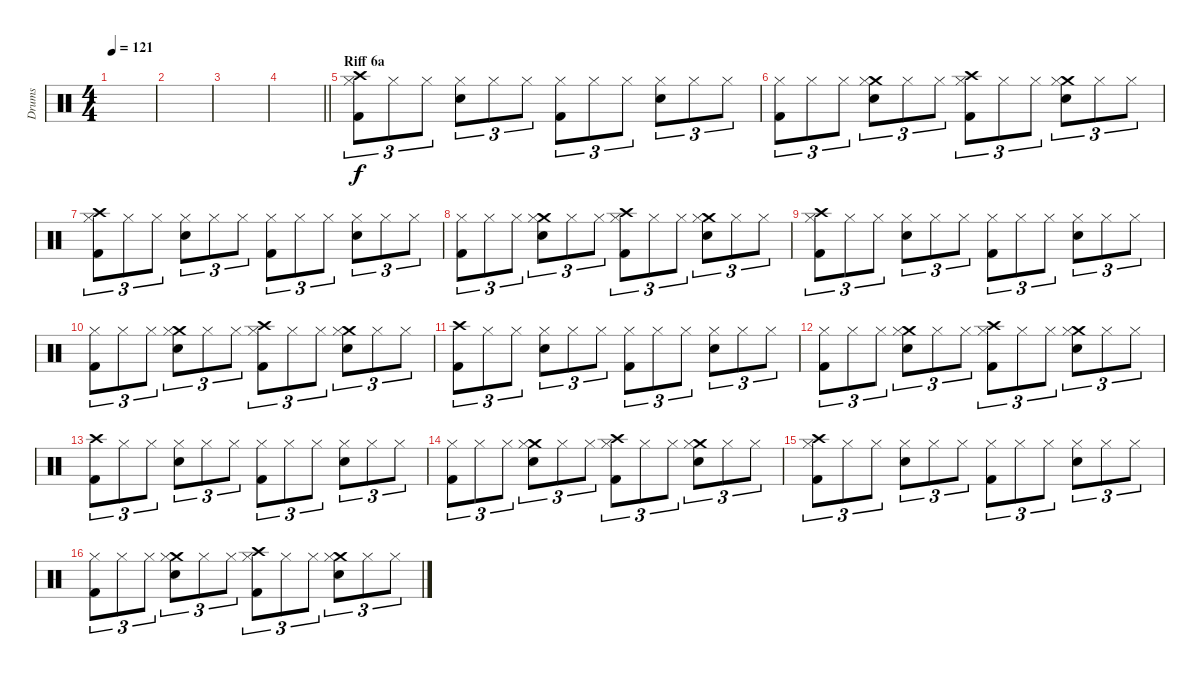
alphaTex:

\track ("Drums" "Drums") {instrument percussion}
\staff {score}
\articulation defaults
\ts (4 4)
\tempo 121
\clef neutral
\ks c
|
|
|
\barLineRight lightlight
|
\section ("" "Riff 6a")
("Crash high (hit)" "Kick (hit) 2" "Hi-Hat (closed)").8{tu (3 2)} "Hi-Hat (closed)".8{tu (3 2)} "Hi-Hat (closed)".8{tu (3 2)} ("Snare (hit) 2" "Hi-Hat (closed)").8{tu (3 2)} "Hi-Hat (closed)".8{tu (3 2)} "Hi-Hat (closed)".8{tu (3 2)} ("Kick (hit) 2" "Hi-Hat (closed)").8{tu (3 2)} "Hi-Hat (closed)".8{tu (3 2)} "Hi-Hat (closed)".8{tu (3 2)} ("Snare (hit) 2" "Hi-Hat (closed)").8{tu (3 2)} "Hi-Hat (closed)".8{tu (3 2)} "Hi-Hat (closed)".8{tu (3 2)} |
("Kick (hit) 2" "Hi-Hat (closed)").8{tu (3 2)} "Hi-Hat (closed)".8{tu (3 2)} "Hi-Hat (closed)".8{tu (3 2)} ("Crash medium (hit)" "Snare (hit) 2" "Hi-Hat (closed)").8{tu (3 2)} "Hi-Hat (closed)".8{tu (3 2)} "Hi-Hat (closed)".8{tu (3 2)} ("Crash high (hit)" "Kick (hit) 2" "Hi-Hat (closed)").8{tu (3 2)} "Hi-Hat (closed)".8{tu (3 2)} "Hi-Hat (closed)".8{tu (3 2)} ("Crash medium (hit)" "Snare (hit) 2" "Hi-Hat (closed)").8{tu (3 2)} "Hi-Hat (closed)".8{tu (3 2)} "Hi-Hat (closed)".8{tu (3 2)} |
("Crash high (hit)" "Kick (hit) 2" "Hi-Hat (closed)").8{tu (3 2)} "Hi-Hat (closed)".8{tu (3 2)} "Hi-Hat (closed)".8{tu (3 2)} ("Snare (hit) 2" "Hi-Hat (closed)").8{tu (3 2)} "Hi-Hat (closed)".8{tu (3 2)} "Hi-Hat (closed)".8{tu (3 2)} ("Kick (hit) 2" "Hi-Hat (closed)").8{tu (3 2)} "Hi-Hat (closed)".8{tu (3 2)} "Hi-Hat (closed)".8{tu (3 2)} ("Snare (hit) 2" "Hi-Hat (closed)").8{tu (3 2)} "Hi-Hat (closed)".8{tu (3 2)} "Hi-Hat (closed)".8{tu (3 2)} |
("Kick (hit) 2" "Hi-Hat (closed)").8{tu (3 2)} "Hi-Hat (closed)".8{tu (3 2)} "Hi-Hat (closed)".8{tu (3 2)} ("Crash medium (hit)" "Snare (hit) 2" "Hi-Hat (closed)").8{tu (3 2)} "Hi-Hat (closed)".8{tu (3 2)} "Hi-Hat (closed)".8{tu (3 2)} ("Crash high (hit)" "Kick (hit) 2" "Hi-Hat (closed)").8{tu (3 2)} "Hi-Hat (closed)".8{tu (3 2)} "Hi-Hat (closed)".8{tu (3 2)} ("Crash medium (hit)" "Snare (hit) 2" "Hi-Hat (closed)").8{tu (3 2)} "Hi-Hat (closed)".8{tu (3 2)} "Hi-Hat (closed)".8{tu (3 2)} |
("Crash high (hit)" "Kick (hit) 2" "Hi-Hat (closed)").8{tu (3 2)} "Hi-Hat (closed)".8{tu (3 2)} "Hi-Hat (closed)".8{tu (3 2)} ("Snare (hit) 2" "Hi-Hat (closed)").8{tu (3 2)} "Hi-Hat (closed)".8{tu (3 2)} "Hi-Hat (closed)".8{tu (3 2)} ("Kick (hit) 2" "Hi-Hat (closed)").8{tu (3 2)} "Hi-Hat (closed)".8{tu (3 2)} "Hi-Hat (closed)".8{tu (3 2)} ("Snare (hit) 2" "Hi-Hat (closed)").8{tu (3 2)} "Hi-Hat (closed)".8{tu (3 2)} "Hi-Hat (closed)".8{tu (3 2)} |
("Kick (hit) 2" "Hi-Hat (closed)").8{tu (3 2)} "Hi-Hat (closed)".8{tu (3 2)} "Hi-Hat (closed)".8{tu (3 2)} ("Crash medium (hit)" "Snare (hit) 2" "Hi-Hat (closed)").8{tu (3 2)} "Hi-Hat (closed)".8{tu (3 2)} "Hi-Hat (closed)".8{tu (3 2)} ("Crash high (hit)" "Kick (hit) 2" "Hi-Hat (closed)").8{tu (3 2)} "Hi-Hat (closed)".8{tu (3 2)} "Hi-Hat (closed)".8{tu (3 2)} ("Crash medium (hit)" "Snare (hit) 2" "Hi-Hat (closed)").8{tu (3 2)} "Hi-Hat (closed)".8{tu (3 2)} "Hi-Hat (closed)".8{tu (3 2)} |
("Crash high (hit)" "Kick (hit) 2").8{tu (3 2)} "Hi-Hat (closed)".8{tu (3 2)} "Hi-Hat (closed)".8{tu (3 2)} ("Snare (hit) 2" "Hi-Hat (closed)").8{tu (3 2)} "Hi-Hat (closed)".8{tu (3 2)} "Hi-Hat (closed)".8{tu (3 2)} ("Kick (hit) 2" "Hi-Hat (closed)").8{tu (3 2)} "Hi-Hat (closed)".8{tu (3 2)} "Hi-Hat (closed)".8{tu (3 2)} ("Snare (hit) 2" "Hi-Hat (closed)").8{tu (3 2)} "Hi-Hat (closed)".8{tu (3 2)} "Hi-Hat (closed)".8{tu (3 2)} |
("Kick (hit) 2" "Hi-Hat (closed)").8{tu (3 2)} "Hi-Hat (closed)".8{tu (3 2)} "Hi-Hat (closed)".8{tu (3 2)} ("Crash medium (hit)" "Snare (hit) 2" "Hi-Hat (closed)").8{tu (3 2)} "Hi-Hat (closed)".8{tu (3 2)} "Hi-Hat (closed)".8{tu (3 2)} ("Crash high (hit)" "Kick (hit) 2" "Hi-Hat (closed)").8{tu (3 2)} "Hi-Hat (closed)".8{tu (3 2)} "Hi-Hat (closed)".8{tu (3 2)} ("Crash medium (hit)" "Snare (hit) 2" "Hi-Hat (closed)").8{tu (3 2)} "Hi-Hat (closed)".8{tu (3 2)} "Hi-Hat (closed)".8{tu (3 2)} |
("Crash high (hit)" "Kick (hit) 2").8{tu (3 2)} "Hi-Hat (closed)".8{tu (3 2)} "Hi-Hat (closed)".8{tu (3 2)} ("Snare (hit) 2" "Hi-Hat (closed)").8{tu (3 2)} "Hi-Hat (closed)".8{tu (3 2)} "Hi-Hat (closed)".8{tu (3 2)} ("Kick (hit) 2" "Hi-Hat (closed)").8{tu (3 2)} "Hi-Hat (closed)".8{tu (3 2)} "Hi-Hat (closed)".8{tu (3 2)} ("Snare (hit) 2" "Hi-Hat (closed)").8{tu (3 2)} "Hi-Hat (closed)".8{tu (3 2)} "Hi-Hat (closed)".8{tu (3 2)} |
("Kick (hit) 2" "Hi-Hat (closed)").8{tu (3 2)} "Hi-Hat (closed)".8{tu (3 2)} "Hi-Hat (closed)".8{tu (3 2)} ("Crash medium (hit)" "Snare (hit) 2" "Hi-Hat (closed)").8{tu (3 2)} "Hi-Hat (closed)".8{tu (3 2)} "Hi-Hat (closed)".8{tu (3 2)} ("Crash high (hit)" "Kick (hit) 2" "Hi-Hat (closed)").8{tu (3 2)} "Hi-Hat (closed)".8{tu (3 2)} "Hi-Hat (closed)".8{tu (3 2)} ("Crash medium (hit)" "Snare (hit) 2" "Hi-Hat (closed)").8{tu (3 2)} "Hi-Hat (closed)".8{tu (3 2)} "Hi-Hat (closed)".8{tu (3 2)} |
("Crash high (hit)" "Kick (hit) 2" "Hi-Hat (closed)").8{tu (3 2)} "Hi-Hat (closed)".8{tu (3 2)} "Hi-Hat (closed)".8{tu (3 2)} ("Snare (hit) 2" "Hi-Hat (closed)").8{tu (3 2)} "Hi-Hat (closed)".8{tu (3 2)} "Hi-Hat (closed)".8{tu (3 2)} ("Kick (hit) 2" "Hi-Hat (closed)").8{tu (3 2)} "Hi-Hat (closed)".8{tu (3 2)} "Hi-Hat (closed)".8{tu (3 2)} ("Snare (hit) 2" "Hi-Hat (closed)").8{tu (3 2)} "Hi-Hat (closed)".8{tu (3 2)} "Hi-Hat (closed)".8{tu (3 2)} |
("Kick (hit) 2" "Hi-Hat (closed)").8{tu (3 2)} "Hi-Hat (closed)".8{tu (3 2)} "Hi-Hat (closed)".8{tu (3 2)} ("Crash medium (hit)" "Snare (hit) 2" "Hi-Hat (closed)").8{tu (3 2)} "Hi-Hat (closed)".8{tu (3 2)} "Hi-Hat (closed)".8{tu (3 2)} ("Crash high (hit)" "Kick (hit) 2" "Hi-Hat (closed)").8{tu (3 2)} "Hi-Hat (closed)".8{tu (3 2)} "Hi-Hat (closed)".8{tu (3 2)} ("Crash medium (hit)" "Snare (hit) 2" "Hi-Hat (closed)").8{tu (3 2)} "Hi-Hat (closed)".8{tu (3 2)} "Hi-Hat (closed)".8{tu (3 2)}
